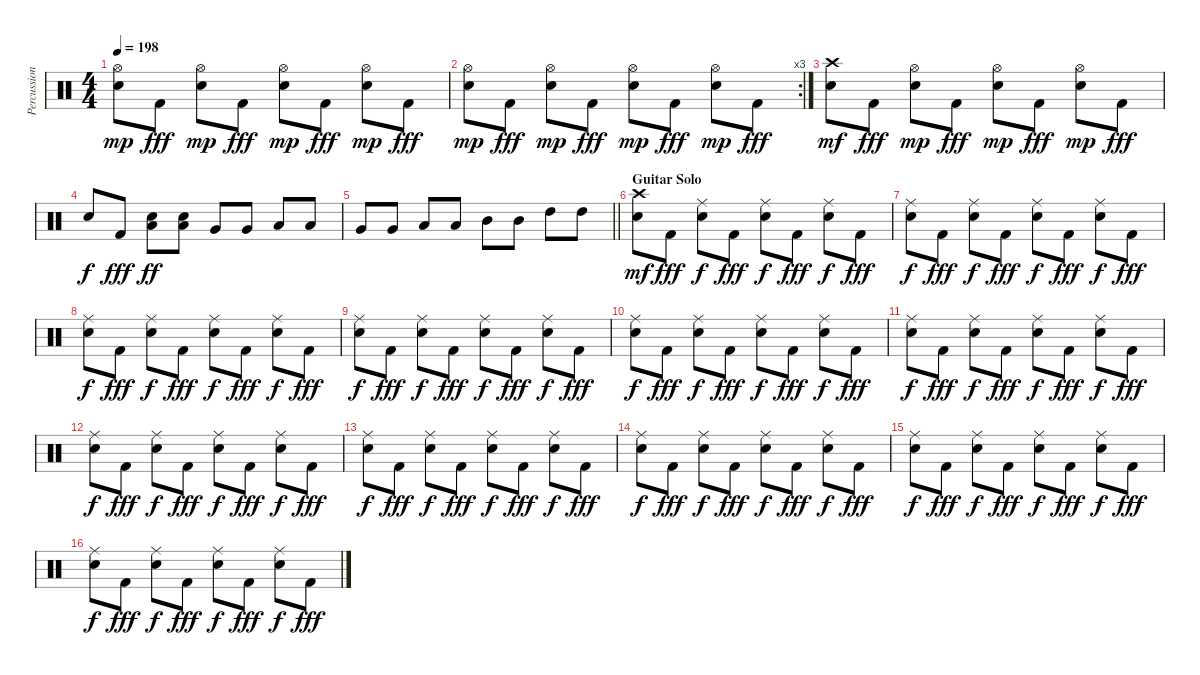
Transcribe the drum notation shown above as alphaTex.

\track ("Percussion" "Percussion") {instrument percussion}
\staff {score}
\articulation defaults
\ts (4 4)
\tempo 198
\clef neutral
\ks c
("Hi-Hat (open)" "Snare (hit) 2").8{dy mp} "Kick (hit) 2".8{dy fff} ("Hi-Hat (open)" "Snare (hit) 2").8{dy mp} "Kick (hit) 2".8{dy fff} ("Hi-Hat (open)" "Snare (hit) 2").8{dy mp} "Kick (hit) 2".8{dy fff} ("Hi-Hat (open)" "Snare (hit) 2").8{dy mp} "Kick (hit) 2".8{dy fff} |
\rc 3
("Hi-Hat (open)" "Snare (hit) 2").8{dy mp} "Kick (hit) 2".8{dy fff} ("Hi-Hat (open)" "Snare (hit) 2").8{dy mp} "Kick (hit) 2".8{dy fff} ("Hi-Hat (open)" "Snare (hit) 2").8{dy mp} "Kick (hit) 2".8{dy fff} ("Hi-Hat (open)" "Snare (hit) 2").8{dy mp} "Kick (hit) 2".8{dy fff} |
("Crash high (hit)" "Snare (hit) 2").8{dy mf} "Kick (hit) 2".8{dy fff} ("Hi-Hat (open)" "Snare (hit) 2").8{dy mp} "Kick (hit) 2".8{dy fff} ("Hi-Hat (open)" "Snare (hit) 2").8{dy mp} "Kick (hit) 2".8{dy fff} ("Hi-Hat (open)" "Snare (hit) 2").8{dy mp} "Kick (hit) 2".8{dy fff} |
"Snare (hit) 2".8{dy f} "Kick (hit) 2".8{dy fff} ("Low Floor Tom (hit)" "Snare (hit) 2").8{dy ff} ("Low Floor Tom (hit)" "Snare (hit) 2").8 "Very Low Tom (hit)".8 "Very Low Tom (hit)".8 "Low Tom (hit)".8 "Low Tom (hit)".8 |
\barLineRight lightlight "Very Low Tom (hit)".8 "Very Low Tom (hit)".8 "Low Tom (hit)".8 "Low Tom (hit)".8 "Mid Tom (hit)".8 "Mid Tom (hit)".8 "High Tom (hit)".8 "High Tom (hit)".8
|
\section ("" "Guitar Solo")
("Crash high (hit)" "Snare (hit) 2").8{dy mf} "Kick (hit) 2".8{dy fff} ("Ride (middle)" "Snare (hit) 2").8{dy f} "Kick (hit) 2".8{dy fff} ("Ride (middle)" "Snare (hit) 2").8{dy f} "Kick (hit) 2".8{dy fff} ("Ride (middle)" "Snare (hit) 2").8{dy f} "Kick (hit) 2".8{dy fff} |
("Ride (middle)" "Snare (hit) 2").8{dy f} "Kick (hit) 2".8{dy fff} ("Ride (middle)" "Snare (hit) 2").8{dy f} "Kick (hit) 2".8{dy fff} ("Ride (middle)" "Snare (hit) 2").8{dy f} "Kick (hit) 2".8{dy fff} ("Ride (middle)" "Snare (hit) 2").8{dy f} "Kick (hit) 2".8{dy fff} |
("Ride (middle)" "Snare (hit) 2").8{dy f} "Kick (hit) 2".8{dy fff} ("Ride (middle)" "Snare (hit) 2").8{dy f} "Kick (hit) 2".8{dy fff} ("Ride (middle)" "Snare (hit) 2").8{dy f} "Kick (hit) 2".8{dy fff} ("Ride (middle)" "Snare (hit) 2").8{dy f} "Kick (hit) 2".8{dy fff} |
("Ride (middle)" "Snare (hit) 2").8{dy f} "Kick (hit) 2".8{dy fff} ("Ride (middle)" "Snare (hit) 2").8{dy f} "Kick (hit) 2".8{dy fff} ("Ride (middle)" "Snare (hit) 2").8{dy f} "Kick (hit) 2".8{dy fff} ("Ride (middle)" "Snare (hit) 2").8{dy f} "Kick (hit) 2".8{dy fff} |
("Ride (middle)" "Snare (hit) 2").8{dy f} "Kick (hit) 2".8{dy fff} ("Ride (middle)" "Snare (hit) 2").8{dy f} "Kick (hit) 2".8{dy fff} ("Ride (middle)" "Snare (hit) 2").8{dy f} "Kick (hit) 2".8{dy fff} ("Ride (middle)" "Snare (hit) 2").8{dy f} "Kick (hit) 2".8{dy fff} |
("Ride (middle)" "Snare (hit) 2").8{dy f} "Kick (hit) 2".8{dy fff} ("Ride (middle)" "Snare (hit) 2").8{dy f} "Kick (hit) 2".8{dy fff} ("Ride (middle)" "Snare (hit) 2").8{dy f} "Kick (hit) 2".8{dy fff} ("Ride (middle)" "Snare (hit) 2").8{dy f} "Kick (hit) 2".8{dy fff} |
("Ride (middle)" "Snare (hit) 2").8{dy f} "Kick (hit) 2".8{dy fff} ("Ride (middle)" "Snare (hit) 2").8{dy f} "Kick (hit) 2".8{dy fff} ("Ride (middle)" "Snare (hit) 2").8{dy f} "Kick (hit) 2".8{dy fff} ("Ride (middle)" "Snare (hit) 2").8{dy f} "Kick (hit) 2".8{dy fff} |
("Ride (middle)" "Snare (hit) 2").8{dy f} "Kick (hit) 2".8{dy fff} ("Ride (middle)" "Snare (hit) 2").8{dy f} "Kick (hit) 2".8{dy fff} ("Ride (middle)" "Snare (hit) 2").8{dy f} "Kick (hit) 2".8{dy fff} ("Ride (middle)" "Snare (hit) 2").8{dy f} "Kick (hit) 2".8{dy fff} |
("Ride (middle)" "Snare (hit) 2").8{dy f} "Kick (hit) 2".8{dy fff} ("Ride (middle)" "Snare (hit) 2").8{dy f} "Kick (hit) 2".8{dy fff} ("Ride (middle)" "Snare (hit) 2").8{dy f} "Kick (hit) 2".8{dy fff} ("Ride (middle)" "Snare (hit) 2").8{dy f} "Kick (hit) 2".8{dy fff} |
("Ride (middle)" "Snare (hit) 2").8{dy f} "Kick (hit) 2".8{dy fff} ("Ride (middle)" "Snare (hit) 2").8{dy f} "Kick (hit) 2".8{dy fff} ("Ride (middle)" "Snare (hit) 2").8{dy f} "Kick (hit) 2".8{dy fff} ("Ride (middle)" "Snare (hit) 2").8{dy f} "Kick (hit) 2".8{dy fff} |
("Ride (middle)" "Snare (hit) 2").8{dy f} "Kick (hit) 2".8{dy fff} ("Ride (middle)" "Snare (hit) 2").8{dy f} "Kick (hit) 2".8{dy fff} ("Ride (middle)" "Snare (hit) 2").8{dy f} "Kick (hit) 2".8{dy fff} ("Ride (middle)" "Snare (hit) 2").8{dy f} "Kick (hit) 2".8{dy fff}
